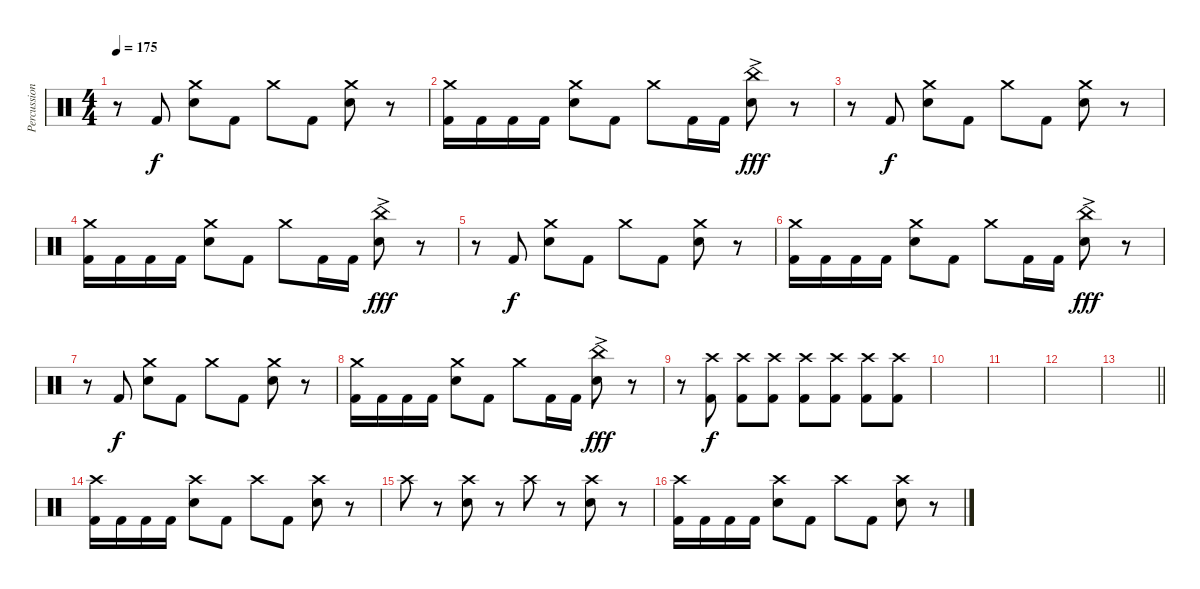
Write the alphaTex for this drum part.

\track ("Percussion (Moose)" "Percussion") {instrument percussion}
\staff {score}
\articulation defaults
\ts (4 4)
\tempo 175
\clef neutral
\ks c
r.8{dy fff} "Kick (hit) 2".8{dy f} ("Crash medium (hit)" "Electric Snare (hit)").8 "Kick (hit) 2".8 "Crash medium (hit)".8 "Kick (hit) 2".8 ("Crash medium (hit)" "Electric Snare (hit)").8 r.8 |
("Crash medium (hit)" "Kick (hit) 2").16 "Kick (hit) 2".16 "Kick (hit) 2".16 "Kick (hit) 2".16 ("Crash medium (hit)" "Electric Snare (hit)").8 "Kick (hit) 2".8 "Crash medium (hit)".8 "Kick (hit) 2".16 "Kick (hit) 2".16 ("China (hit)"{ac} "Electric Snare (hit)").8{dy fff} r.8 |
r.8 "Kick (hit) 2".8{dy f} ("Crash medium (hit)" "Electric Snare (hit)").8 "Kick (hit) 2".8 "Crash medium (hit)".8 "Kick (hit) 2".8 ("Crash medium (hit)" "Electric Snare (hit)").8 r.8 |
("Crash medium (hit)" "Kick (hit) 2").16 "Kick (hit) 2".16 "Kick (hit) 2".16 "Kick (hit) 2".16 ("Crash medium (hit)" "Electric Snare (hit)").8 "Kick (hit) 2".8 "Crash medium (hit)".8 "Kick (hit) 2".16 "Kick (hit) 2".16 ("China (hit)"{ac} "Electric Snare (hit)").8{dy fff} r.8 |
r.8 "Kick (hit) 2".8{dy f} ("Crash medium (hit)" "Electric Snare (hit)").8 "Kick (hit) 2".8 "Crash medium (hit)".8 "Kick (hit) 2".8 ("Crash medium (hit)" "Electric Snare (hit)").8 r.8 |
("Crash medium (hit)" "Kick (hit) 2").16 "Kick (hit) 2".16 "Kick (hit) 2".16 "Kick (hit) 2".16 ("Crash medium (hit)" "Electric Snare (hit)").8 "Kick (hit) 2".8 "Crash medium (hit)".8 "Kick (hit) 2".16 "Kick (hit) 2".16 ("China (hit)"{ac} "Electric Snare (hit)").8{dy fff} r.8 |
r.8 "Kick (hit) 2".8{dy f} ("Crash medium (hit)" "Electric Snare (hit)").8 "Kick (hit) 2".8 "Crash medium (hit)".8 "Kick (hit) 2".8 ("Crash medium (hit)" "Electric Snare (hit)").8 r.8 |
("Crash medium (hit)" "Kick (hit) 2").16 "Kick (hit) 2".16 "Kick (hit) 2".16 "Kick (hit) 2".16 ("Crash medium (hit)" "Electric Snare (hit)").8 "Kick (hit) 2".8 "Crash medium (hit)".8 "Kick (hit) 2".16 "Kick (hit) 2".16 ("China (hit)"{ac} "Electric Snare (hit)").8{dy fff} r.8 |
r.8 ("Crash high (hit)" "Kick (hit) 2").8{dy f} ("Crash high (hit)" "Kick (hit) 2").8 ("Crash high (hit)" "Kick (hit) 2").8 ("Crash high (hit)" "Kick (hit) 2").8 ("Crash high (hit)" "Kick (hit) 2").8 ("Crash high (hit)" "Kick (hit) 2").8 ("Crash high (hit)" "Kick (hit) 2").8 |
|
|
|
\barLineRight lightlight
|
("Crash high (hit)" "Kick (hit) 2").16 "Kick (hit) 2".16 "Kick (hit) 2".16 "Kick (hit) 2".16 ("Crash high (hit)" "Electric Snare (hit)").8 "Kick (hit) 2".8 "Crash high (hit)".8 "Kick (hit) 2".8 ("Crash high (hit)" "Electric Snare (hit)").8 r.8 |
"Crash high (hit)".8 r.8 ("Crash high (hit)" "Electric Snare (hit)").8 r.8 "Crash high (hit)".8 r.8 ("Crash high (hit)" "Electric Snare (hit)").8 r.8 |
("Crash high (hit)" "Kick (hit) 2").16 "Kick (hit) 2".16 "Kick (hit) 2".16 "Kick (hit) 2".16 ("Crash high (hit)" "Electric Snare (hit)").8 "Kick (hit) 2".8 "Crash high (hit)".8 "Kick (hit) 2".8 ("Crash high (hit)" "Electric Snare (hit)").8 r.8
